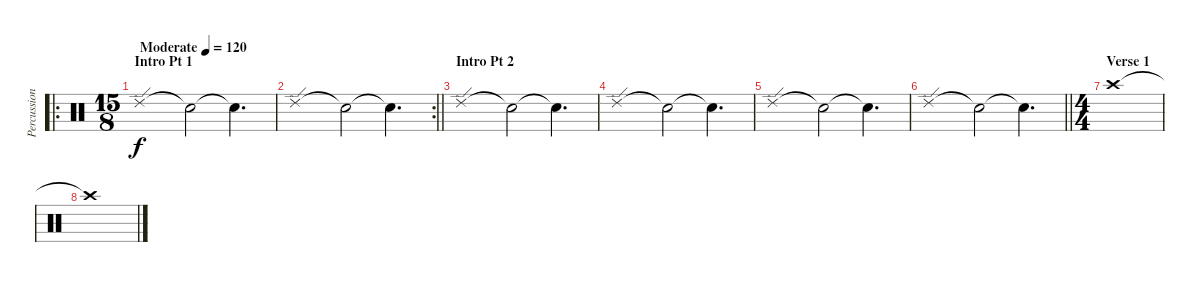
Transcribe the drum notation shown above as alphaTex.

\track ("Percussion" "Percussion") {instrument percussion}
\staff {score}
\articulation defaults
\ro
\ts (15 8)
\section ("" "Intro Pt 1")
\tempo (120 "Moderate")
\clef neutral
\ks c "Ride (edge) 2".1{dy f} "Snare (hit)"{t}.2 "Snare (hit)"{t}.4{d}
|
\rc 2
\barLineRight lightlight "Ride (edge) 2".1 "Snare (hit)"{t}.2 "Snare (hit)"{t}.4{d}
|
\section ("" "Intro Pt 2")
"Ride (edge) 2".1 "Snare (hit)"{t}.2 "Snare (hit)"{t}.4{d} |
"Ride (edge) 2".1 "Snare (hit)"{t}.2 "Snare (hit)"{t}.4{d} |
"Ride (edge) 2".1 "Snare (hit)"{t}.2 "Snare (hit)"{t}.4{d} |
\barLineRight lightlight "Ride (edge) 2".1 "Snare (hit)"{t}.2 "Snare (hit)"{t}.4{d}
|
\ts (4 4)
\section ("" "Verse 1")
"Crash high (hit)".1 |
"Crash high (hit)"{t}.1
